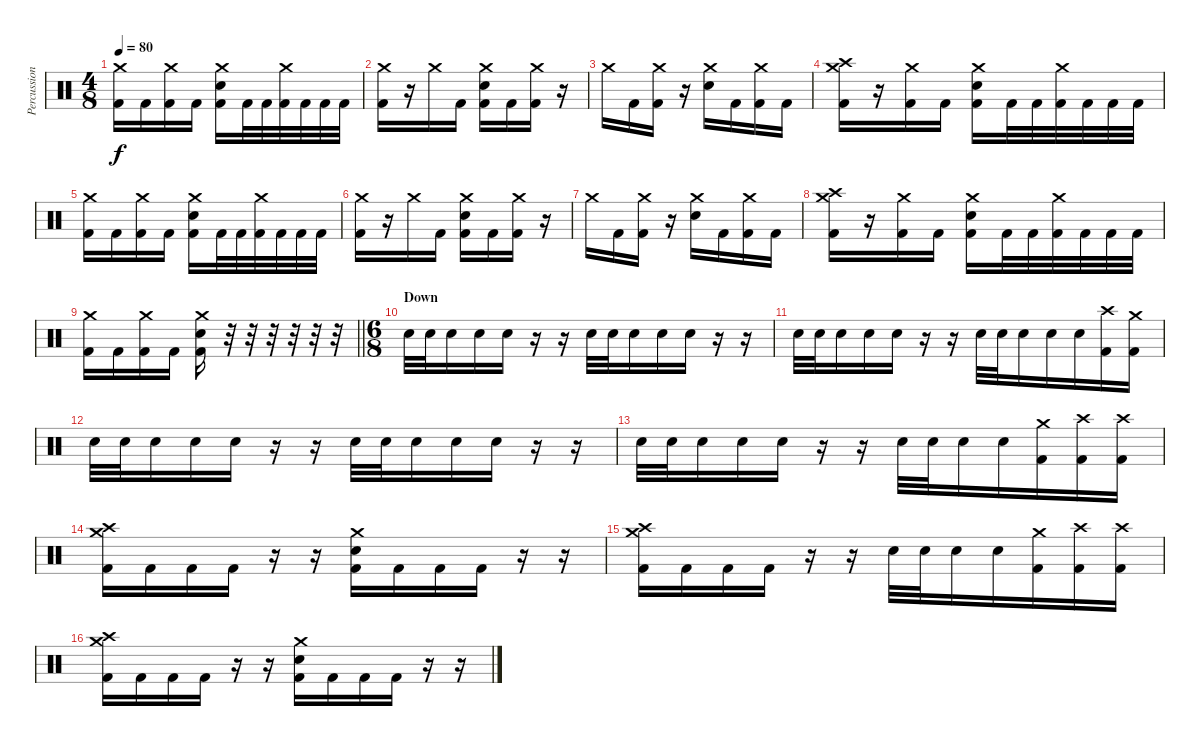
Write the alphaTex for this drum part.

\track ("Percussion" "Percussion") {instrument percussion}
\staff {score}
\articulation defaults
\ts (4 8)
\tempo 80
\clef neutral
\ks c
("Crash medium (hit)" "Kick (hit) 2").16{dy f} "Kick (hit) 2".16 ("Crash medium (hit)" "Kick (hit) 2").16 "Kick (hit) 2".16 ("Crash medium (hit)" "Snare (hit) 2" "Kick (hit) 2").16 "Kick (hit) 2".32 "Kick (hit) 2".32 ("Crash medium (hit)" "Kick (hit) 2").32 "Kick (hit) 2".32 "Kick (hit) 2".32 "Kick (hit) 2".32 |
("Crash medium (hit)" "Kick (hit) 2").16 r.16 "Crash medium (hit)".16 "Kick (hit) 2".16 ("Crash medium (hit)" "Snare (hit) 2" "Kick (hit) 2").16 "Kick (hit) 2".16 ("Crash medium (hit)" "Kick (hit) 2").16 r.16 |
"Crash medium (hit)".16 "Kick (hit) 2".16 ("Crash medium (hit)" "Kick (hit) 2").16 r.16 ("Crash medium (hit)" "Snare (hit) 2").16 "Kick (hit) 2".16 ("Crash medium (hit)" "Kick (hit) 2").16 "Kick (hit) 2".16 |
("Crash high (hit)" "Crash medium (hit)" "Kick (hit) 2").16 r.16 ("Crash medium (hit)" "Kick (hit) 2").16 "Kick (hit) 2".16 ("Crash medium (hit)" "Snare (hit) 2" "Kick (hit) 2").16 "Kick (hit) 2".32 "Kick (hit) 2".32 ("Crash medium (hit)" "Kick (hit) 2").32 "Kick (hit) 2".32 "Kick (hit) 2".32 "Kick (hit) 2".32 |
("Crash medium (hit)" "Kick (hit) 2").16 "Kick (hit) 2".16 ("Crash medium (hit)" "Kick (hit) 2").16 "Kick (hit) 2".16 ("Crash medium (hit)" "Snare (hit) 2" "Kick (hit) 2").16 "Kick (hit) 2".32 "Kick (hit) 2".32 ("Crash medium (hit)" "Kick (hit) 2").32 "Kick (hit) 2".32 "Kick (hit) 2".32 "Kick (hit) 2".32 |
("Crash medium (hit)" "Kick (hit) 2").16 r.16 "Crash medium (hit)".16 "Kick (hit) 2".16 ("Crash medium (hit)" "Snare (hit) 2" "Kick (hit) 2").16 "Kick (hit) 2".16 ("Crash medium (hit)" "Kick (hit) 2").16 r.16 |
"Crash medium (hit)".16 "Kick (hit) 2".16 ("Crash medium (hit)" "Kick (hit) 2").16 r.16 ("Crash medium (hit)" "Snare (hit) 2").16 "Kick (hit) 2".16 ("Crash medium (hit)" "Kick (hit) 2").16 "Kick (hit) 2".16 |
("Crash high (hit)" "Crash medium (hit)" "Kick (hit) 2").16 r.16 ("Crash medium (hit)" "Kick (hit) 2").16 "Kick (hit) 2".16 ("Crash medium (hit)" "Snare (hit) 2" "Kick (hit) 2").16 "Kick (hit) 2".32 "Kick (hit) 2".32 ("Crash medium (hit)" "Kick (hit) 2").32 "Kick (hit) 2".32 "Kick (hit) 2".32 "Kick (hit) 2".32 |
\barLineRight lightlight
("Crash medium (hit)" "Kick (hit) 2").16 "Kick (hit) 2".16 ("Crash medium (hit)" "Kick (hit) 2").16 "Kick (hit) 2".16 ("Crash medium (hit)" "Snare (hit) 2" "Kick (hit) 2").16 r.32 r.32 r.32 r.32 r.32 r.32 |
\ts (6 8)
\section ("" "Down")
"Snare (hit) 2".32 "Snare (hit) 2".32 "Snare (hit) 2".16 "Snare (hit) 2".16 "Snare (hit) 2".16 r.16 r.16 "Snare (hit) 2".32 "Snare (hit) 2".32 "Snare (hit) 2".16 "Snare (hit) 2".16 "Snare (hit) 2".16 r.16 r.16 |
"Snare (hit) 2".32 "Snare (hit) 2".32 "Snare (hit) 2".16 "Snare (hit) 2".16 "Snare (hit) 2".16 r.16 r.16 "Snare (hit) 2".32 "Snare (hit) 2".32 "Snare (hit) 2".16 "Snare (hit) 2".16 "Snare (hit) 2".16 ("Crash high (hit)" "Kick (hit) 2").16 ("Crash medium (hit)" "Kick (hit) 2").16 |
"Snare (hit) 2".32 "Snare (hit) 2".32 "Snare (hit) 2".16 "Snare (hit) 2".16 "Snare (hit) 2".16 r.16 r.16 "Snare (hit) 2".32 "Snare (hit) 2".32 "Snare (hit) 2".16 "Snare (hit) 2".16 "Snare (hit) 2".16 r.16 r.16 |
"Snare (hit) 2".32 "Snare (hit) 2".32 "Snare (hit) 2".16 "Snare (hit) 2".16 "Snare (hit) 2".16 r.16 r.16 "Snare (hit) 2".32 "Snare (hit) 2".32 "Snare (hit) 2".16 "Snare (hit) 2".16 ("Crash medium (hit)" "Kick (hit) 2").16 ("Crash high (hit)" "Kick (hit) 2").16 ("Crash high (hit)" "Kick (hit) 2").16 |
("Crash high (hit)" "Crash medium (hit)" "Kick (hit) 2").16 "Kick (hit) 2".16 "Kick (hit) 2".16 "Kick (hit) 2".16 r.16 r.16 ("Crash medium (hit)" "Snare (hit) 2" "Kick (hit) 2").16 "Kick (hit) 2".16 "Kick (hit) 2".16 "Kick (hit) 2".16 r.16 r.16 |
("Crash high (hit)" "Crash medium (hit)" "Kick (hit) 2").16 "Kick (hit) 2".16 "Kick (hit) 2".16 "Kick (hit) 2".16 r.16 r.16 "Snare (hit) 2".32 "Snare (hit) 2".32 "Snare (hit) 2".16 "Snare (hit) 2".16 ("Crash medium (hit)" "Kick (hit) 2").16 ("Crash high (hit)" "Kick (hit) 2").16 ("Crash high (hit)" "Kick (hit) 2").16 |
("Crash high (hit)" "Crash medium (hit)" "Kick (hit) 2").16 "Kick (hit) 2".16 "Kick (hit) 2".16 "Kick (hit) 2".16 r.16 r.16 ("Crash medium (hit)" "Snare (hit) 2" "Kick (hit) 2").16 "Kick (hit) 2".16 "Kick (hit) 2".16 "Kick (hit) 2".16 r.16 r.16
